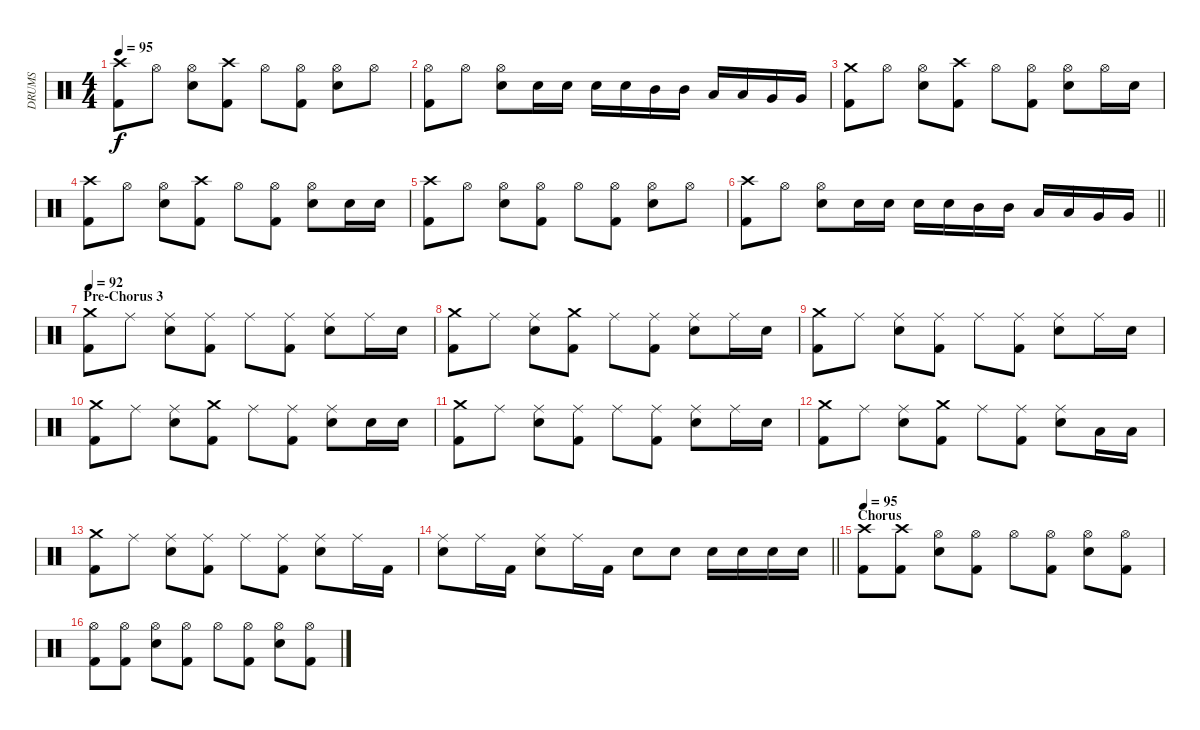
\track ("DRUMS" "DRUMS") {instrument percussion}
\staff {score}
\articulation defaults
\ts (4 4)
\tempo 95
\clef neutral
\ks c
("Crash high (hit)" "Kick (hit) 2").8{dy f} "Hi-Hat (open)".8 ("Hi-Hat (open)" "Snare (hit) 2").8 ("Crash high (hit)" "Kick (hit) 2").8 "Hi-Hat (open)".8 ("Hi-Hat (open)" "Kick (hit) 2").8 ("Hi-Hat (open)" "Snare (hit) 2").8 "Hi-Hat (open)".8 |
("Hi-Hat (open)" "Kick (hit) 2").8 "Hi-Hat (open)".8 ("Hi-Hat (open)" "Snare (hit) 2").8 "Snare (hit) 2".16 "Snare (hit) 2".16 "Snare (hit) 2".16 "Snare (hit) 2".16 "Mid Tom (hit)".16 "Mid Tom (hit)".16 "Low Tom (hit)".16 "Low Tom (hit)".16 "Very Low Tom (hit)".16 "Very Low Tom (hit)".16 |
("Crash medium (hit)" "Kick (hit) 2").8 "Hi-Hat (open)".8 ("Hi-Hat (open)" "Snare (hit) 2").8 ("Crash high (hit)" "Kick (hit) 2").8 "Hi-Hat (open)".8 ("Hi-Hat (open)" "Kick (hit) 2").8 ("Hi-Hat (open)" "Snare (hit) 2").8 "Hi-Hat (open)".16 "Snare (hit) 2".16 |
("Crash high (hit)" "Kick (hit) 2").8 "Hi-Hat (open)".8 ("Hi-Hat (open)" "Snare (hit) 2").8 ("Crash high (hit)" "Kick (hit) 2").8 "Hi-Hat (open)".8 ("Hi-Hat (open)" "Kick (hit) 2").8 ("Hi-Hat (open)" "Snare (hit) 2").8 "Snare (hit) 2".16 "Snare (hit) 2".16 |
("Crash high (hit)" "Kick (hit) 2").8 "Hi-Hat (open)".8 ("Hi-Hat (open)" "Snare (hit) 2").8 ("Hi-Hat (open)" "Kick (hit) 2").8 "Hi-Hat (open)".8 ("Hi-Hat (open)" "Kick (hit) 2").8 ("Hi-Hat (open)" "Snare (hit) 2").8 "Hi-Hat (open)".8 |
\barLineRight lightlight
("Crash high (hit)" "Kick (hit) 2").8 "Hi-Hat (open)".8 ("Hi-Hat (open)" "Snare (hit) 2").8 "Snare (hit) 2".16 "Snare (hit) 2".16 "Snare (hit) 2".16 "Snare (hit) 2".16 "Mid Tom (hit)".16 "Mid Tom (hit)".16 "Low Tom (hit)".16 "Low Tom (hit)".16 "Very Low Tom (hit)".16 "Very Low Tom (hit)".16 |
\section ("" "Pre-Chorus 3")
\tempo 92
("Crash medium (hit)" "Kick (hit) 2").8 "Ride (middle)".8 ("Ride (middle)" "Snare (hit) 2").8 ("Ride (middle)" "Kick (hit) 2").8 "Ride (middle)".8 ("Ride (middle)" "Kick (hit) 2").8 ("Ride (middle)" "Snare (hit) 2").8 "Ride (middle)".16 "Snare (hit) 2".16 |
("Crash medium (hit)" "Kick (hit) 2").8 "Ride (middle)".8 ("Ride (middle)" "Snare (hit) 2").8 ("Crash medium (hit)" "Kick (hit) 2").8 "Ride (middle)".8 ("Ride (middle)" "Kick (hit) 2").8 ("Ride (middle)" "Snare (hit) 2").8 "Ride (middle)".16 "Snare (hit) 2".16 |
("Crash medium (hit)" "Kick (hit) 2").8 "Ride (middle)".8 ("Ride (middle)" "Snare (hit) 2").8 ("Ride (middle)" "Kick (hit) 2").8 "Ride (middle)".8 ("Ride (middle)" "Kick (hit) 2").8 ("Ride (middle)" "Snare (hit) 2").8 "Ride (middle)".16 "Snare (hit) 2".16 |
("Crash medium (hit)" "Kick (hit) 2").8 "Ride (middle)".8 ("Ride (middle)" "Snare (hit) 2").8 ("Crash medium (hit)" "Kick (hit) 2").8 "Ride (middle)".8 ("Ride (middle)" "Kick (hit) 2").8 ("Ride (middle)" "Snare (hit) 2").8 "Snare (hit) 2".16 "Snare (hit) 2".16 |
("Crash medium (hit)" "Kick (hit) 2").8 "Ride (middle)".8 ("Ride (middle)" "Snare (hit) 2").8 ("Ride (middle)" "Kick (hit) 2").8 "Ride (middle)".8 ("Ride (middle)" "Kick (hit) 2").8 ("Ride (middle)" "Snare (hit) 2").8 "Ride (middle)".16 "Snare (hit) 2".16 |
("Crash medium (hit)" "Kick (hit) 2").8 "Ride (middle)".8 ("Ride (middle)" "Snare (hit) 2").8 ("Crash medium (hit)" "Kick (hit) 2").8 "Ride (middle)".8 ("Ride (middle)" "Kick (hit) 2").8 ("Ride (middle)" "Snare (hit) 2").8 "Low Floor Tom (hit)".16 "Low Floor Tom (hit)".16 |
("Crash medium (hit)" "Kick (hit) 2").8 "Ride (middle)".8 ("Ride (middle)" "Snare (hit) 2").8 ("Ride (middle)" "Kick (hit) 2").8 "Ride (middle)".8 ("Ride (middle)" "Kick (hit) 2").8 ("Ride (middle)" "Snare (hit) 2").8 "Ride (middle)".16 "Kick (hit) 2".16 |
\barLineRight lightlight
("Ride (middle)" "Snare (hit) 2").8 "Ride (middle)".16 "Kick (hit) 2".16 ("Ride (middle)" "Snare (hit) 2").8 "Ride (middle)".16 "Kick (hit) 2".16 "Snare (hit) 2".8 "Snare (hit) 2".8 "Snare (hit) 2".16 "Snare (hit) 2".16 "Snare (hit) 2".16 "Snare (hit) 2".16 |
\section ("" "Chorus")
\tempo 95
("Crash high (hit)" "Kick (hit) 2").8 ("Crash high (hit)" "Kick (hit) 2").8 ("Hi-Hat (open)" "Snare (hit) 2").8 ("Hi-Hat (open)" "Kick (hit) 2").8 "Hi-Hat (open)".8 ("Hi-Hat (open)" "Kick (hit) 2").8 ("Hi-Hat (open)" "Snare (hit) 2").8 ("Hi-Hat (open)" "Kick (hit) 2").8 |
("Hi-Hat (open)" "Kick (hit) 2").8 ("Hi-Hat (open)" "Kick (hit) 2").8 ("Hi-Hat (open)" "Snare (hit) 2").8 ("Hi-Hat (open)" "Kick (hit) 2").8 "Hi-Hat (open)".8 ("Hi-Hat (open)" "Kick (hit) 2").8 ("Hi-Hat (open)" "Snare (hit) 2").8 ("Hi-Hat (open)" "Kick (hit) 2").8
